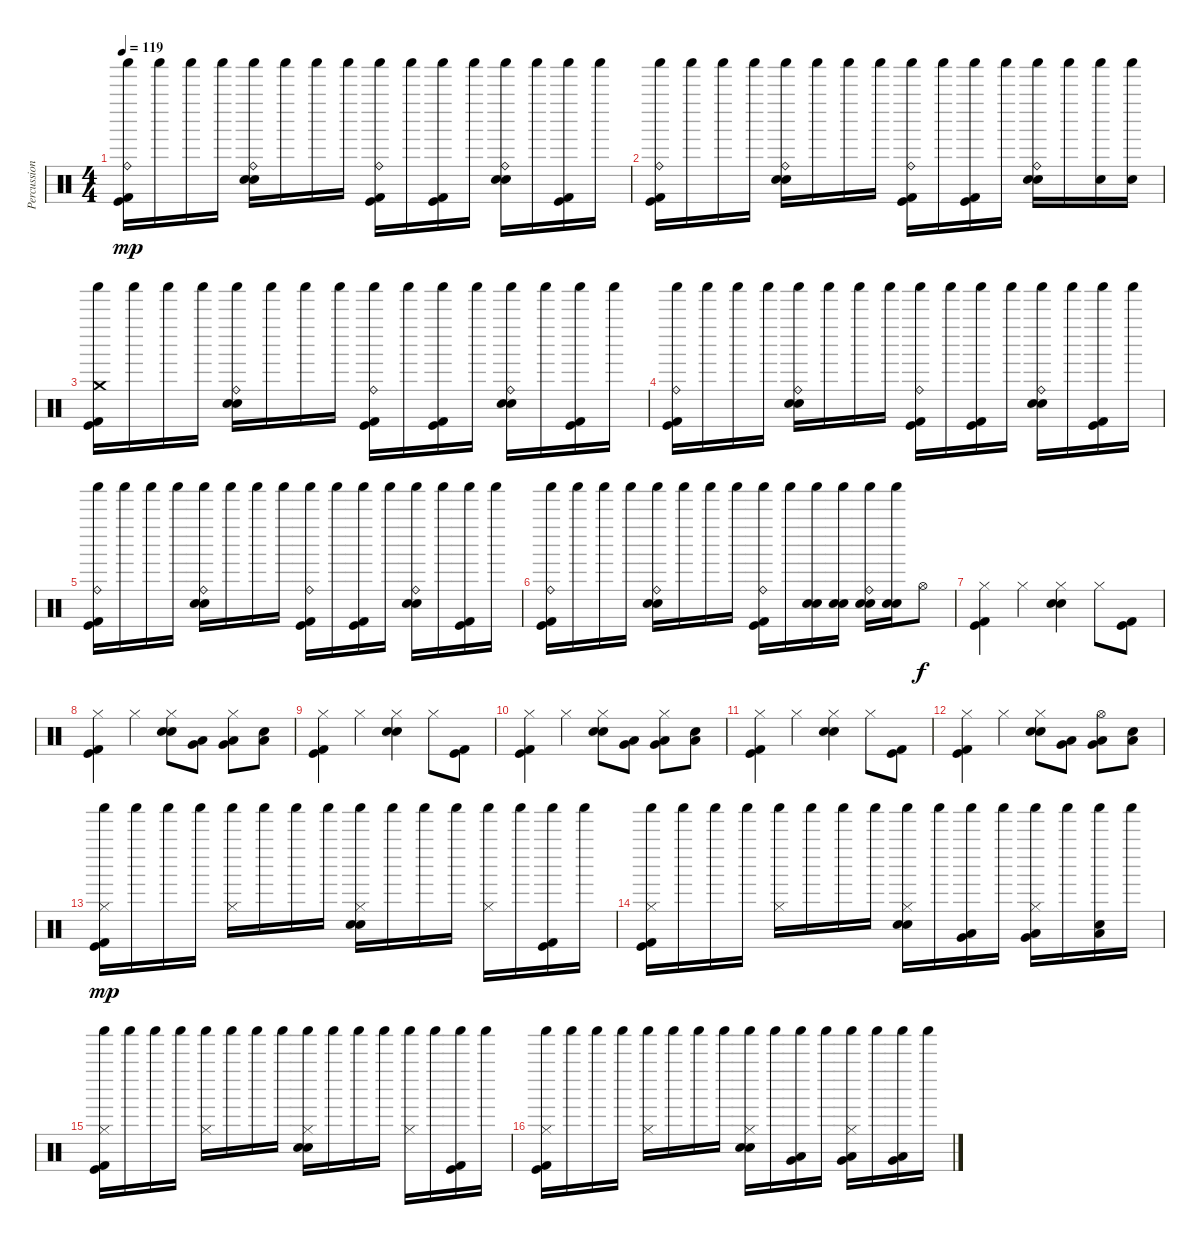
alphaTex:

\track ("Percussion" "Percussion") {instrument percussion}
\staff {score}
\articulation defaults
\ts (4 4)
\tempo 119
\clef neutral
\ks c
("Ride (bell)" "Kick (hit)" "Kick (hit) 2" "Shaker (hit)").16{dy mp} "Shaker (hit)".16 "Shaker (hit)".16 "Shaker (hit)".16 ("Ride (bell)" "Electric Snare (hit)" "Metronome (bell)" "Shaker (hit)").16 "Shaker (hit)".16 "Shaker (hit)".16 "Shaker (hit)".16 ("Ride (bell)" "Kick (hit)" "Kick (hit) 2" "Shaker (hit)").16 "Shaker (hit)".16 ("Kick (hit)" "Kick (hit) 2" "Shaker (hit)").16 "Shaker (hit)".16 ("Ride (bell)" "Electric Snare (hit)" "Metronome (bell)" "Shaker (hit)").16 "Shaker (hit)".16 ("Kick (hit)" "Kick (hit) 2" "Shaker (hit)").16 "Shaker (hit)".16 |
("Ride (bell)" "Kick (hit)" "Kick (hit) 2" "Shaker (hit)").16 "Shaker (hit)".16 "Shaker (hit)".16 "Shaker (hit)".16 ("Ride (bell)" "Electric Snare (hit)" "Metronome (bell)" "Shaker (hit)").16 "Shaker (hit)".16 "Shaker (hit)".16 "Shaker (hit)".16 ("Ride (bell)" "Kick (hit)" "Kick (hit) 2" "Shaker (hit)").16 "Shaker (hit)".16 ("Kick (hit)" "Kick (hit) 2" "Shaker (hit)").16 "Shaker (hit)".16 ("Ride (bell)" "Electric Snare (hit)" "Metronome (bell)" "Shaker (hit)").16 "Shaker (hit)".16 ("Metronome (bell)" "Shaker (hit)").16 ("Metronome (bell)" "Shaker (hit)").16 |
("Crash medium (hit)" "Kick (hit)" "Kick (hit) 2" "Shaker (hit)").16 "Shaker (hit)".16 "Shaker (hit)".16 "Shaker (hit)".16 ("Ride (bell)" "Electric Snare (hit)" "Metronome (bell)" "Shaker (hit)").16 "Shaker (hit)".16 "Shaker (hit)".16 "Shaker (hit)".16 ("Ride (bell)" "Kick (hit)" "Kick (hit) 2" "Shaker (hit)").16 "Shaker (hit)".16 ("Kick (hit)" "Kick (hit) 2" "Shaker (hit)").16 "Shaker (hit)".16 ("Ride (bell)" "Electric Snare (hit)" "Metronome (bell)" "Shaker (hit)").16 "Shaker (hit)".16 ("Kick (hit)" "Kick (hit) 2" "Shaker (hit)").16 "Shaker (hit)".16 |
("Ride (bell)" "Kick (hit)" "Kick (hit) 2" "Shaker (hit)").16 "Shaker (hit)".16 "Shaker (hit)".16 "Shaker (hit)".16 ("Ride (bell)" "Electric Snare (hit)" "Metronome (bell)" "Shaker (hit)").16 "Shaker (hit)".16 "Shaker (hit)".16 "Shaker (hit)".16 ("Ride (bell)" "Kick (hit)" "Kick (hit) 2" "Shaker (hit)").16 "Shaker (hit)".16 ("Kick (hit)" "Kick (hit) 2" "Shaker (hit)").16 "Shaker (hit)".16 ("Ride (bell)" "Electric Snare (hit)" "Metronome (bell)" "Shaker (hit)").16 "Shaker (hit)".16 ("Kick (hit)" "Kick (hit) 2" "Shaker (hit)").16 "Shaker (hit)".16 |
("Ride (bell)" "Kick (hit)" "Kick (hit) 2" "Shaker (hit)").16 "Shaker (hit)".16 "Shaker (hit)".16 "Shaker (hit)".16 ("Ride (bell)" "Electric Snare (hit)" "Metronome (bell)" "Shaker (hit)").16 "Shaker (hit)".16 "Shaker (hit)".16 "Shaker (hit)".16 ("Ride (bell)" "Kick (hit)" "Kick (hit) 2" "Shaker (hit)").16 "Shaker (hit)".16 ("Kick (hit)" "Kick (hit) 2" "Shaker (hit)").16 "Shaker (hit)".16 ("Ride (bell)" "Electric Snare (hit)" "Metronome (bell)" "Shaker (hit)").16 "Shaker (hit)".16 ("Kick (hit)" "Kick (hit) 2" "Shaker (hit)").16 "Shaker (hit)".16 |
("Ride (bell)" "Kick (hit)" "Kick (hit) 2" "Shaker (hit)").16 "Shaker (hit)".16 "Shaker (hit)".16 "Shaker (hit)".16 ("Ride (bell)" "Electric Snare (hit)" "Metronome (bell)" "Shaker (hit)").16 "Shaker (hit)".16 "Shaker (hit)".16 "Shaker (hit)".16 ("Ride (bell)" "Kick (hit)" "Kick (hit) 2" "Shaker (hit)").16 "Shaker (hit)".16 ("Electric Snare (hit)" "Metronome (bell)" "Shaker (hit)").16 ("Electric Snare (hit)" "Metronome (bell)" "Shaker (hit)").16 ("Ride (bell)" "Electric Snare (hit)" "Metronome (bell)" "Shaker (hit)").16 ("Electric Snare (hit)" "Metronome (bell)" "Shaker (hit)").16 "Hi-Hat (open)".8{dy f} |
("Hi-Hat (closed)" "Kick (hit)" "Kick (hit) 2").4 "Hi-Hat (closed)".4 ("Hi-Hat (closed)" "Electric Snare (hit)" "Metronome (bell)").4 "Hi-Hat (closed)".8 ("Kick (hit)" "Kick (hit) 2").8 |
("Hi-Hat (closed)" "Kick (hit)" "Kick (hit) 2").4 "Hi-Hat (closed)".4 ("Hi-Hat (closed)" "Electric Snare (hit)" "Metronome (bell)").8 ("Low Tom (hit)" "Very Low Tom (hit)").8 ("Hi-Hat (closed)" "Very Low Tom (hit)" "Low Floor Tom (hit)").8 ("Low Floor Tom (hit)" "Snare (hit)").8 |
("Hi-Hat (closed)" "Kick (hit)" "Kick (hit) 2").4 "Hi-Hat (closed)".4 ("Hi-Hat (closed)" "Electric Snare (hit)" "Metronome (bell)").4 "Hi-Hat (closed)".8 ("Kick (hit)" "Kick (hit) 2").8 |
("Hi-Hat (closed)" "Kick (hit)" "Kick (hit) 2").4 "Hi-Hat (closed)".4 ("Hi-Hat (closed)" "Electric Snare (hit)" "Metronome (bell)").8 ("Low Tom (hit)" "Very Low Tom (hit)").8 ("Hi-Hat (closed)" "Very Low Tom (hit)" "Low Floor Tom (hit)").8 ("Low Floor Tom (hit)" "Snare (hit)").8 |
("Hi-Hat (closed)" "Kick (hit)" "Kick (hit) 2").4 "Hi-Hat (closed)".4 ("Hi-Hat (closed)" "Electric Snare (hit)" "Metronome (bell)").4 "Hi-Hat (closed)".8 ("Kick (hit)" "Kick (hit) 2").8 |
("Hi-Hat (closed)" "Kick (hit)" "Kick (hit) 2").4 "Hi-Hat (closed)".4 ("Hi-Hat (closed)" "Electric Snare (hit)" "Metronome (bell)").8 ("Low Tom (hit)" "Very Low Tom (hit)").8 ("Hi-Hat (open)" "Very Low Tom (hit)" "Low Floor Tom (hit)").8 ("Low Floor Tom (hit)" "Snare (hit)").8 |
("Hi-Hat (closed)" "Kick (hit)" "Kick (hit) 2" "Shaker (hit)").16{dy mp} "Shaker (hit)".16 "Shaker (hit)".16 "Shaker (hit)".16 ("Hi-Hat (closed)" "Shaker (hit)").16 "Shaker (hit)".16 "Shaker (hit)".16 "Shaker (hit)".16 ("Hi-Hat (closed)" "Electric Snare (hit)" "Metronome (bell)" "Shaker (hit)").16 "Shaker (hit)".16 "Shaker (hit)".16 "Shaker (hit)".16 ("Hi-Hat (closed)" "Shaker (hit)").16 "Shaker (hit)".16 ("Kick (hit)" "Kick (hit) 2" "Shaker (hit)").16 "Shaker (hit)".16 |
("Hi-Hat (closed)" "Kick (hit)" "Kick (hit) 2" "Shaker (hit)").16 "Shaker (hit)".16 "Shaker (hit)".16 "Shaker (hit)".16 ("Hi-Hat (closed)" "Shaker (hit)").16 "Shaker (hit)".16 "Shaker (hit)".16 "Shaker (hit)".16 ("Hi-Hat (closed)" "Electric Snare (hit)" "Metronome (bell)" "Shaker (hit)").16 "Shaker (hit)".16 ("Low Tom (hit)" "Very Low Tom (hit)" "Shaker (hit)").16 "Shaker (hit)".16 ("Hi-Hat (closed)" "Very Low Tom (hit)" "Low Floor Tom (hit)" "Shaker (hit)").16 "Shaker (hit)".16 ("Low Floor Tom (hit)" "Snare (hit)" "Shaker (hit)").16 "Shaker (hit)".16 |
("Hi-Hat (closed)" "Kick (hit)" "Kick (hit) 2" "Shaker (hit)").16 "Shaker (hit)".16 "Shaker (hit)".16 "Shaker (hit)".16 ("Hi-Hat (closed)" "Shaker (hit)").16 "Shaker (hit)".16 "Shaker (hit)".16 "Shaker (hit)".16 ("Hi-Hat (closed)" "Electric Snare (hit)" "Metronome (bell)" "Shaker (hit)").16 "Shaker (hit)".16 "Shaker (hit)".16 "Shaker (hit)".16 ("Hi-Hat (closed)" "Shaker (hit)").16 "Shaker (hit)".16 ("Kick (hit)" "Kick (hit) 2" "Shaker (hit)").16 "Shaker (hit)".16 |
("Hi-Hat (closed)" "Kick (hit)" "Kick (hit) 2" "Shaker (hit)").16 "Shaker (hit)".16 "Shaker (hit)".16 "Shaker (hit)".16 ("Hi-Hat (closed)" "Shaker (hit)").16 "Shaker (hit)".16 "Shaker (hit)".16 "Shaker (hit)".16 ("Hi-Hat (closed)" "Electric Snare (hit)" "Metronome (bell)" "Shaker (hit)").16 "Shaker (hit)".16 ("Low Tom (hit)" "Very Low Tom (hit)" "Shaker (hit)").16 "Shaker (hit)".16 ("Hi-Hat (closed)" "Low Tom (hit)" "Very Low Tom (hit)" "Shaker (hit)").16 "Shaker (hit)".16 ("Very Low Tom (hit)" "Low Floor Tom (hit)" "Shaker (hit)").16 "Shaker (hit)".16
